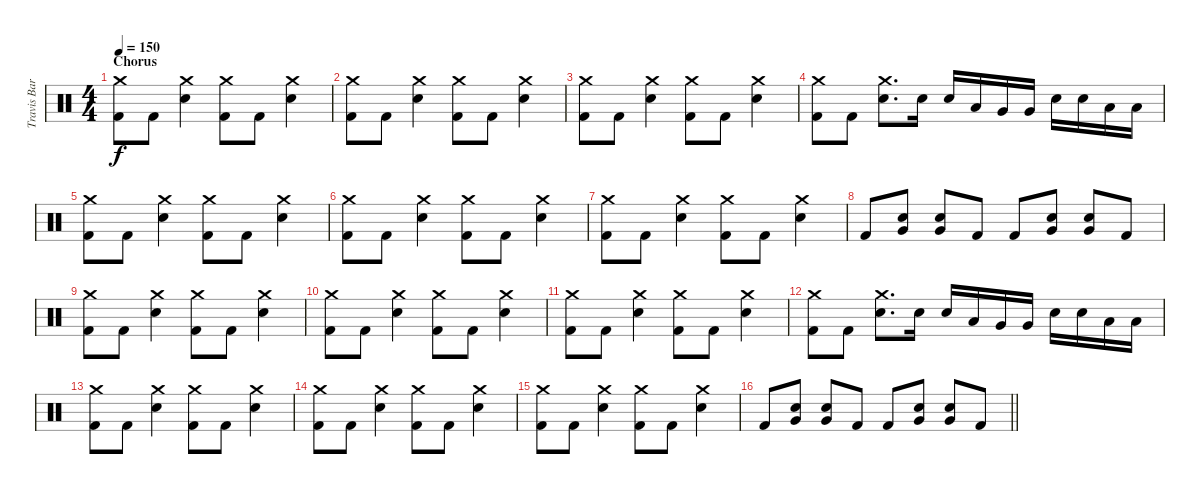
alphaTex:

\track ("Travis Barker - Drums" "Travis Bar") {instrument percussion}
\staff {score}
\articulation defaults
\ts (4 4)
\section ("" "Chorus")
\tempo 150
\clef neutral
\ks c
("Crash medium (hit)" "Kick (hit) 2").8{dy f} "Kick (hit) 2".8 ("Crash medium (hit)" "Electric Snare (hit)").4 ("Crash medium (hit)" "Kick (hit) 2").8 "Kick (hit) 2".8 ("Crash medium (hit)" "Electric Snare (hit)").4 |
("Crash medium (hit)" "Kick (hit) 2").8 "Kick (hit) 2".8 ("Crash medium (hit)" "Electric Snare (hit)").4 ("Crash medium (hit)" "Kick (hit) 2").8 "Kick (hit) 2".8 ("Crash medium (hit)" "Electric Snare (hit)").4 |
("Crash medium (hit)" "Kick (hit) 2").8 "Kick (hit) 2".8 ("Crash medium (hit)" "Electric Snare (hit)").4 ("Crash medium (hit)" "Kick (hit) 2").8 "Kick (hit) 2".8 ("Crash medium (hit)" "Electric Snare (hit)").4 |
("Crash medium (hit)" "Kick (hit) 2").8 "Kick (hit) 2".8 ("Crash medium (hit)" "Electric Snare (hit)").8{d} "Electric Snare (hit)".16 "Electric Snare (hit)".16 "Low Tom (hit)".16 "Very Low Tom (hit)".16 "Very Low Tom (hit)".16 "Electric Snare (hit)".16 "Electric Snare (hit)".16 "Low Tom (hit)".16 "Low Tom (hit)".16 |
("Crash medium (hit)" "Kick (hit) 2").8 "Kick (hit) 2".8 ("Crash medium (hit)" "Electric Snare (hit)").4 ("Crash medium (hit)" "Kick (hit) 2").8 "Kick (hit) 2".8 ("Crash medium (hit)" "Electric Snare (hit)").4 |
("Crash medium (hit)" "Kick (hit) 2").8 "Kick (hit) 2".8 ("Crash medium (hit)" "Electric Snare (hit)").4 ("Crash medium (hit)" "Kick (hit) 2").8 "Kick (hit) 2".8 ("Crash medium (hit)" "Electric Snare (hit)").4 |
("Crash medium (hit)" "Kick (hit) 2").8 "Kick (hit) 2".8 ("Crash medium (hit)" "Electric Snare (hit)").4 ("Crash medium (hit)" "Kick (hit) 2").8 "Kick (hit) 2".8 ("Crash medium (hit)" "Electric Snare (hit)").4 |
"Kick (hit) 2".8 ("Electric Snare (hit)" "Very Low Tom (hit)").8 ("Electric Snare (hit)" "Very Low Tom (hit)").8 "Kick (hit) 2".8 "Kick (hit) 2".8 ("Electric Snare (hit)" "Very Low Tom (hit)").8 ("Electric Snare (hit)" "Very Low Tom (hit)").8 "Kick (hit) 2".8 |
("Crash medium (hit)" "Kick (hit) 2").8 "Kick (hit) 2".8 ("Crash medium (hit)" "Electric Snare (hit)").4 ("Crash medium (hit)" "Kick (hit) 2").8 "Kick (hit) 2".8 ("Crash medium (hit)" "Electric Snare (hit)").4 |
("Crash medium (hit)" "Kick (hit) 2").8 "Kick (hit) 2".8 ("Crash medium (hit)" "Electric Snare (hit)").4 ("Crash medium (hit)" "Kick (hit) 2").8 "Kick (hit) 2".8 ("Crash medium (hit)" "Electric Snare (hit)").4 |
("Crash medium (hit)" "Kick (hit) 2").8 "Kick (hit) 2".8 ("Crash medium (hit)" "Electric Snare (hit)").4 ("Crash medium (hit)" "Kick (hit) 2").8 "Kick (hit) 2".8 ("Crash medium (hit)" "Electric Snare (hit)").4 |
("Crash medium (hit)" "Kick (hit) 2").8 "Kick (hit) 2".8 ("Crash medium (hit)" "Electric Snare (hit)").8{d} "Electric Snare (hit)".16 "Electric Snare (hit)".16 "Low Tom (hit)".16 "Very Low Tom (hit)".16 "Very Low Tom (hit)".16 "Electric Snare (hit)".16 "Electric Snare (hit)".16 "Low Tom (hit)".16 "Low Tom (hit)".16 |
("Crash medium (hit)" "Kick (hit) 2").8 "Kick (hit) 2".8 ("Crash medium (hit)" "Electric Snare (hit)").4 ("Crash medium (hit)" "Kick (hit) 2").8 "Kick (hit) 2".8 ("Crash medium (hit)" "Electric Snare (hit)").4 |
("Crash medium (hit)" "Kick (hit) 2").8 "Kick (hit) 2".8 ("Crash medium (hit)" "Electric Snare (hit)").4 ("Crash medium (hit)" "Kick (hit) 2").8 "Kick (hit) 2".8 ("Crash medium (hit)" "Electric Snare (hit)").4 |
("Crash medium (hit)" "Kick (hit) 2").8 "Kick (hit) 2".8 ("Crash medium (hit)" "Electric Snare (hit)").4 ("Crash medium (hit)" "Kick (hit) 2").8 "Kick (hit) 2".8 ("Crash medium (hit)" "Electric Snare (hit)").4 |
\barLineRight lightlight "Kick (hit) 2".8
("Electric Snare (hit)" "Very Low Tom (hit)").8 ("Electric Snare (hit)" "Very Low Tom (hit)").8 "Kick (hit) 2".8 "Kick (hit) 2".8 ("Electric Snare (hit)" "Very Low Tom (hit)").8 ("Electric Snare (hit)" "Very Low Tom (hit)").8 "Kick (hit) 2".8
